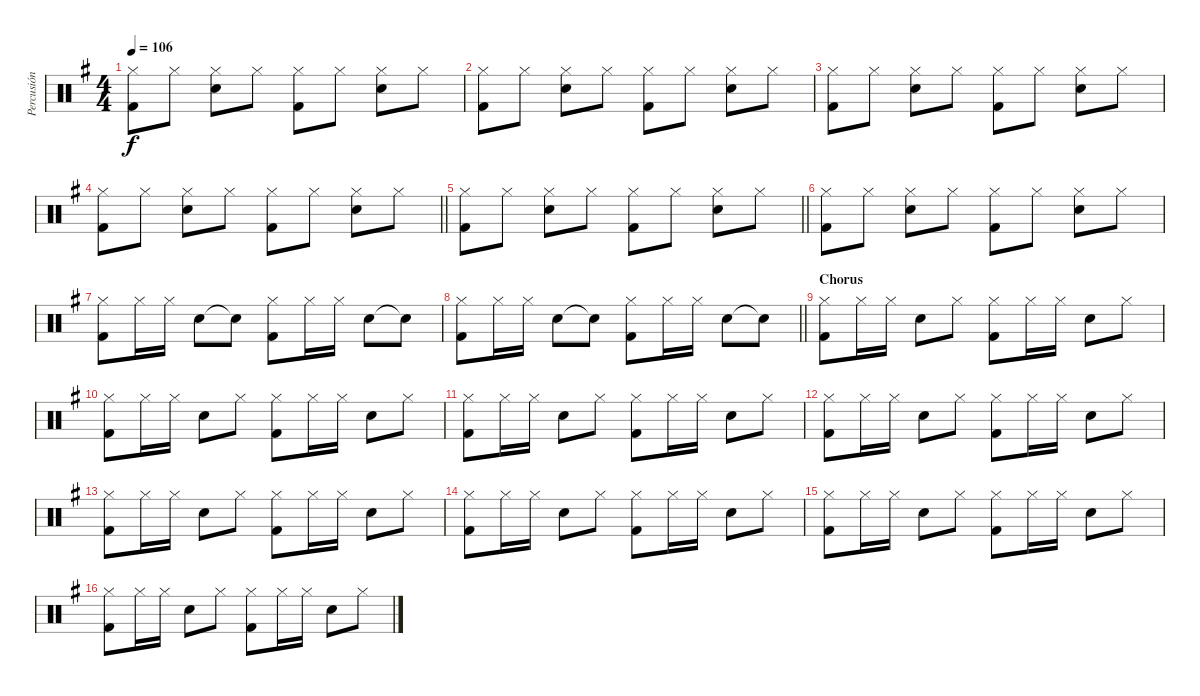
\track ("Percusión" "Percusión") {instrument percussion}
\staff {score}
\articulation defaults
\ts (4 4)
\tempo 106
\clef neutral
\ks g
("Kick (hit) 2" "Hi-Hat (closed)").8{dy f} "Hi-Hat (closed)".8 ("Electric Snare (hit)" "Hi-Hat (closed)").8 "Hi-Hat (closed)".8 ("Kick (hit) 2" "Hi-Hat (closed)").8 "Hi-Hat (closed)".8 ("Electric Snare (hit)" "Hi-Hat (closed)").8 "Hi-Hat (closed)".8 |
("Kick (hit) 2" "Hi-Hat (closed)").8 "Hi-Hat (closed)".8 ("Electric Snare (hit)" "Hi-Hat (closed)").8 "Hi-Hat (closed)".8 ("Kick (hit) 2" "Hi-Hat (closed)").8 "Hi-Hat (closed)".8 ("Electric Snare (hit)" "Hi-Hat (closed)").8 "Hi-Hat (closed)".8 |
("Kick (hit) 2" "Hi-Hat (closed)").8 "Hi-Hat (closed)".8 ("Electric Snare (hit)" "Hi-Hat (closed)").8 "Hi-Hat (closed)".8 ("Kick (hit) 2" "Hi-Hat (closed)").8 "Hi-Hat (closed)".8 ("Electric Snare (hit)" "Hi-Hat (closed)").8 "Hi-Hat (closed)".8 |
\barLineRight lightlight
("Kick (hit) 2" "Hi-Hat (closed)").8 "Hi-Hat (closed)".8 ("Electric Snare (hit)" "Hi-Hat (closed)").8 "Hi-Hat (closed)".8 ("Kick (hit) 2" "Hi-Hat (closed)").8 "Hi-Hat (closed)".8 ("Electric Snare (hit)" "Hi-Hat (closed)").8 "Hi-Hat (closed)".8 |
\barLineRight lightlight
("Kick (hit) 2" "Hi-Hat (closed)").8 "Hi-Hat (closed)".8 ("Electric Snare (hit)" "Hi-Hat (closed)").8 "Hi-Hat (closed)".8 ("Kick (hit) 2" "Hi-Hat (closed)").8 "Hi-Hat (closed)".8 ("Electric Snare (hit)" "Hi-Hat (closed)").8 "Hi-Hat (closed)".8 |
("Kick (hit) 2" "Hi-Hat (closed)").8 "Hi-Hat (closed)".8 ("Electric Snare (hit)" "Hi-Hat (closed)").8 "Hi-Hat (closed)".8 ("Kick (hit) 2" "Hi-Hat (closed)").8 "Hi-Hat (closed)".8 ("Electric Snare (hit)" "Hi-Hat (closed)").8 "Hi-Hat (closed)".8 |
("Kick (hit) 2" "Hi-Hat (closed)").8 "Hi-Hat (closed)".16 "Hi-Hat (closed)".16 "Electric Snare (hit)".8 "Electric Snare (hit)"{t}.8 ("Kick (hit) 2" "Hi-Hat (closed)").8 "Hi-Hat (closed)".16 "Hi-Hat (closed)".16 "Electric Snare (hit)".8 "Electric Snare (hit)"{t}.8 |
\barLineRight lightlight
("Kick (hit) 2" "Hi-Hat (closed)").8 "Hi-Hat (closed)".16 "Hi-Hat (closed)".16 "Electric Snare (hit)".8 "Electric Snare (hit)"{t}.8 ("Kick (hit) 2" "Hi-Hat (closed)").8 "Hi-Hat (closed)".16 "Hi-Hat (closed)".16 "Electric Snare (hit)".8 "Electric Snare (hit)"{t}.8 |
\section ("" "Chorus")
("Kick (hit) 2" "Hi-Hat (closed)").8 "Hi-Hat (closed)".16 "Hi-Hat (closed)".16 "Electric Snare (hit)".8 "Hi-Hat (closed)".8 ("Kick (hit) 2" "Hi-Hat (closed)").8 "Hi-Hat (closed)".16 "Hi-Hat (closed)".16 "Electric Snare (hit)".8 "Hi-Hat (closed)".8 |
("Kick (hit) 2" "Hi-Hat (closed)").8 "Hi-Hat (closed)".16 "Hi-Hat (closed)".16 "Electric Snare (hit)".8 "Hi-Hat (closed)".8 ("Kick (hit) 2" "Hi-Hat (closed)").8 "Hi-Hat (closed)".16 "Hi-Hat (closed)".16 "Electric Snare (hit)".8 "Hi-Hat (closed)".8 |
("Kick (hit) 2" "Hi-Hat (closed)").8 "Hi-Hat (closed)".16 "Hi-Hat (closed)".16 "Electric Snare (hit)".8 "Hi-Hat (closed)".8 ("Kick (hit) 2" "Hi-Hat (closed)").8 "Hi-Hat (closed)".16 "Hi-Hat (closed)".16 "Electric Snare (hit)".8 "Hi-Hat (closed)".8 |
("Kick (hit) 2" "Hi-Hat (closed)").8 "Hi-Hat (closed)".16 "Hi-Hat (closed)".16 "Electric Snare (hit)".8 "Hi-Hat (closed)".8 ("Kick (hit) 2" "Hi-Hat (closed)").8 "Hi-Hat (closed)".16 "Hi-Hat (closed)".16 "Electric Snare (hit)".8 "Hi-Hat (closed)".8 |
("Kick (hit) 2" "Hi-Hat (closed)").8 "Hi-Hat (closed)".16 "Hi-Hat (closed)".16 "Electric Snare (hit)".8 "Hi-Hat (closed)".8 ("Kick (hit) 2" "Hi-Hat (closed)").8 "Hi-Hat (closed)".16 "Hi-Hat (closed)".16 "Electric Snare (hit)".8 "Hi-Hat (closed)".8 |
("Kick (hit) 2" "Hi-Hat (closed)").8 "Hi-Hat (closed)".16 "Hi-Hat (closed)".16 "Electric Snare (hit)".8 "Hi-Hat (closed)".8 ("Kick (hit) 2" "Hi-Hat (closed)").8 "Hi-Hat (closed)".16 "Hi-Hat (closed)".16 "Electric Snare (hit)".8 "Hi-Hat (closed)".8 |
("Kick (hit) 2" "Hi-Hat (closed)").8 "Hi-Hat (closed)".16 "Hi-Hat (closed)".16 "Electric Snare (hit)".8 "Hi-Hat (closed)".8 ("Kick (hit) 2" "Hi-Hat (closed)").8 "Hi-Hat (closed)".16 "Hi-Hat (closed)".16 "Electric Snare (hit)".8 "Hi-Hat (closed)".8 |
("Kick (hit) 2" "Hi-Hat (closed)").8 "Hi-Hat (closed)".16 "Hi-Hat (closed)".16 "Electric Snare (hit)".8 "Hi-Hat (closed)".8 ("Kick (hit) 2" "Hi-Hat (closed)").8 "Hi-Hat (closed)".16 "Hi-Hat (closed)".16 "Electric Snare (hit)".8 "Hi-Hat (closed)".8
